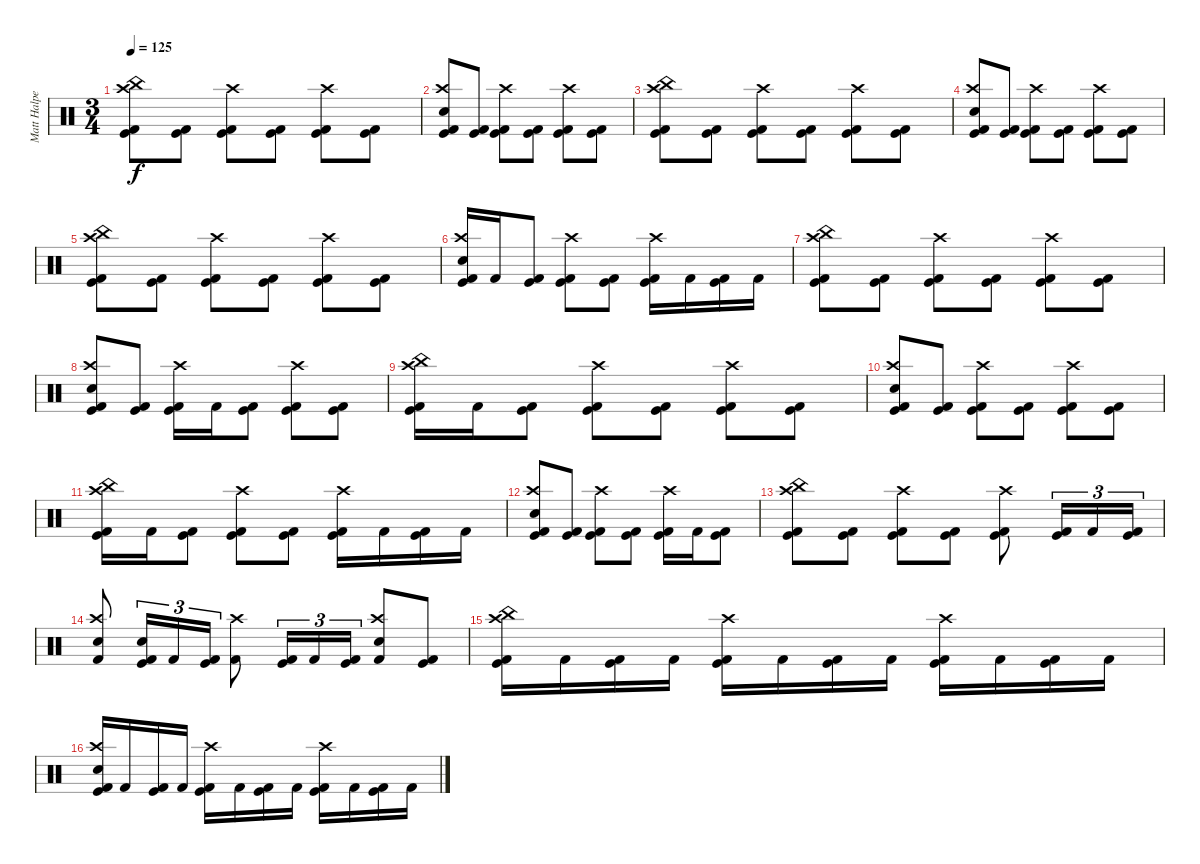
\track ("Matt Halpern" "Matt Halpe") {instrument percussion}
\staff {score}
\articulation defaults
\ts (3 4)
\tempo 125
\clef neutral
\ks c
("Kick (hit) 2" "Kick (hit)" "China (hit)" "Crash high (hit)").8{dy f} ("Kick (hit) 2" "Kick (hit)").8 ("Kick (hit) 2" "Kick (hit)" "Crash high (hit)").8 ("Kick (hit) 2" "Kick (hit)").8 ("Kick (hit) 2" "Kick (hit)" "Crash high (hit)").8 ("Kick (hit) 2" "Kick (hit)").8 |
("Kick (hit) 2" "Kick (hit)" "Electric Snare (hit)" "Crash high (hit)").8 ("Kick (hit) 2" "Kick (hit)").8 ("Kick (hit) 2" "Kick (hit)" "Crash high (hit)").8 ("Kick (hit) 2" "Kick (hit)").8 ("Kick (hit) 2" "Kick (hit)" "Crash high (hit)").8 ("Kick (hit) 2" "Kick (hit)").8 |
("Kick (hit) 2" "Kick (hit)" "China (hit)" "Crash high (hit)").8 ("Kick (hit) 2" "Kick (hit)").8 ("Kick (hit) 2" "Kick (hit)" "Crash high (hit)").8 ("Kick (hit) 2" "Kick (hit)").8 ("Kick (hit) 2" "Kick (hit)" "Crash high (hit)").8 ("Kick (hit) 2" "Kick (hit)").8 |
("Kick (hit) 2" "Kick (hit)" "Electric Snare (hit)" "Crash high (hit)").8 ("Kick (hit) 2" "Kick (hit)").8 ("Kick (hit) 2" "Kick (hit)" "Crash high (hit)").8 ("Kick (hit) 2" "Kick (hit)").8 ("Kick (hit) 2" "Kick (hit)" "Crash high (hit)").8 ("Kick (hit) 2" "Kick (hit)").8 |
("Kick (hit) 2" "Kick (hit)" "China (hit)" "Crash high (hit)").8 ("Kick (hit) 2" "Kick (hit)").8 ("Kick (hit) 2" "Kick (hit)" "Crash high (hit)").8 ("Kick (hit) 2" "Kick (hit)").8 ("Kick (hit) 2" "Kick (hit)" "Crash high (hit)").8 ("Kick (hit) 2" "Kick (hit)").8 |
("Kick (hit) 2" "Kick (hit)" "Electric Snare (hit)" "Crash high (hit)").16 "Kick (hit) 2".16 ("Kick (hit) 2" "Kick (hit)").8 ("Kick (hit) 2" "Kick (hit)" "Crash high (hit)").8 ("Kick (hit) 2" "Kick (hit)").8 ("Kick (hit) 2" "Kick (hit)" "Crash high (hit)").16 "Kick (hit) 2".16 ("Kick (hit) 2" "Kick (hit)").16 "Kick (hit) 2".16 |
("Kick (hit) 2" "Kick (hit)" "China (hit)" "Crash high (hit)").8 ("Kick (hit) 2" "Kick (hit)").8 ("Kick (hit) 2" "Kick (hit)" "Crash high (hit)").8 ("Kick (hit) 2" "Kick (hit)").8 ("Kick (hit) 2" "Kick (hit)" "Crash high (hit)").8 ("Kick (hit) 2" "Kick (hit)").8 |
("Kick (hit) 2" "Kick (hit)" "Electric Snare (hit)" "Crash high (hit)").8 ("Kick (hit) 2" "Kick (hit)").8 ("Kick (hit) 2" "Kick (hit)" "Crash high (hit)").16 "Kick (hit) 2".16 ("Kick (hit) 2" "Kick (hit)").8 ("Kick (hit) 2" "Kick (hit)" "Crash high (hit)").8 ("Kick (hit) 2" "Kick (hit)").8 |
("Kick (hit) 2" "Kick (hit)" "China (hit)" "Crash high (hit)").16 "Kick (hit) 2".16 ("Kick (hit) 2" "Kick (hit)").8 ("Kick (hit) 2" "Kick (hit)" "Crash high (hit)").8 ("Kick (hit) 2" "Kick (hit)").8 ("Kick (hit) 2" "Kick (hit)" "Crash high (hit)").8 ("Kick (hit) 2" "Kick (hit)").8 |
("Kick (hit) 2" "Kick (hit)" "Electric Snare (hit)" "Crash high (hit)").8 ("Kick (hit) 2" "Kick (hit)").8 ("Kick (hit) 2" "Kick (hit)" "Crash high (hit)").8 ("Kick (hit) 2" "Kick (hit)").8 ("Kick (hit) 2" "Kick (hit)" "Crash high (hit)").8 ("Kick (hit) 2" "Kick (hit)").8 |
("Kick (hit) 2" "Kick (hit)" "China (hit)" "Crash high (hit)").16 "Kick (hit) 2".16 ("Kick (hit) 2" "Kick (hit)").8 ("Kick (hit) 2" "Kick (hit)" "Crash high (hit)").8 ("Kick (hit) 2" "Kick (hit)").8 ("Kick (hit) 2" "Kick (hit)" "Crash high (hit)").16 "Kick (hit) 2".16 ("Kick (hit) 2" "Kick (hit)").16 "Kick (hit) 2".16 |
("Kick (hit) 2" "Kick (hit)" "Electric Snare (hit)" "Crash high (hit)").8 ("Kick (hit) 2" "Kick (hit)").8 ("Kick (hit) 2" "Kick (hit)" "Crash high (hit)").8 ("Kick (hit) 2" "Kick (hit)").8 ("Kick (hit) 2" "Kick (hit)" "Crash high (hit)").16 "Kick (hit) 2".16 ("Kick (hit) 2" "Kick (hit)").8 |
("Kick (hit) 2" "Kick (hit)" "China (hit)" "Crash high (hit)").8 ("Kick (hit) 2" "Kick (hit)").8 ("Kick (hit) 2" "Kick (hit)" "Crash high (hit)").8 ("Kick (hit) 2" "Kick (hit)").8 ("Kick (hit) 2" "Kick (hit)" "Crash high (hit)").8 ("Kick (hit) 2" "Kick (hit)").16{tu (3 2)} "Kick (hit) 2".16{tu (3 2)} ("Kick (hit) 2" "Kick (hit)").16{tu (3 2)} |
("Kick (hit) 2" "Electric Snare (hit)" "Crash high (hit)").8 ("Kick (hit) 2" "Kick (hit)" "Electric Snare (hit)").16{tu (3 2)} "Kick (hit) 2".16{tu (3 2)} ("Kick (hit) 2" "Kick (hit)").16{tu (3 2)} ("Kick (hit) 2" "Crash high (hit)").8 ("Kick (hit) 2" "Kick (hit)").16{tu (3 2)} "Kick (hit) 2".16{tu (3 2)} ("Kick (hit) 2" "Kick (hit)").16{tu (3 2)} ("Kick (hit) 2" "Electric Snare (hit)" "Crash high (hit)").8 ("Kick (hit) 2" "Kick (hit)").8 |
("Kick (hit) 2" "Kick (hit)" "China (hit)" "Crash high (hit)").16 "Kick (hit) 2".16 ("Kick (hit) 2" "Kick (hit)").16 "Kick (hit) 2".16 ("Kick (hit) 2" "Kick (hit)" "Crash high (hit)").16 "Kick (hit) 2".16 ("Kick (hit) 2" "Kick (hit)").16 "Kick (hit) 2".16 ("Kick (hit) 2" "Kick (hit)" "Crash high (hit)").16 "Kick (hit) 2".16 ("Kick (hit) 2" "Kick (hit)").16 "Kick (hit) 2".16 |
("Kick (hit) 2" "Kick (hit)" "Electric Snare (hit)" "Crash high (hit)").16 "Kick (hit) 2".16 ("Kick (hit) 2" "Kick (hit)").16 "Kick (hit) 2".16 ("Kick (hit) 2" "Kick (hit)" "Crash high (hit)").16 "Kick (hit) 2".16 ("Kick (hit) 2" "Kick (hit)").16 "Kick (hit) 2".16 ("Kick (hit) 2" "Kick (hit)" "Crash high (hit)").16 "Kick (hit) 2".16 ("Kick (hit) 2" "Kick (hit)").16 "Kick (hit) 2".16
